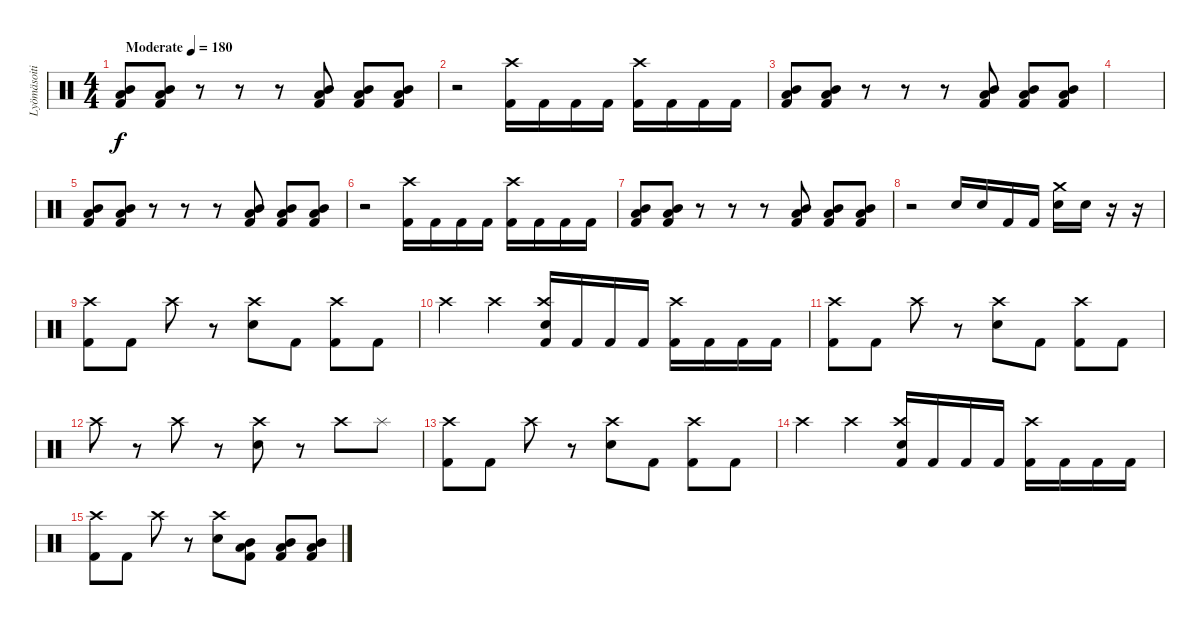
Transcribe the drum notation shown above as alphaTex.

\track ("Lyömäsoitin" "Lyömäsoiti") {instrument percussion}
\staff {score}
\articulation defaults
\ts (4 4)
\tempo (180 "Moderate")
\clef neutral
\ks c
("Kick (hit) 2" "Mid Tom (hit)" "Low Tom (hit)").8{dy f} ("Kick (hit) 2" "Mid Tom (hit)" "Low Tom (hit)").8 r.8 r.8 r.8 ("Kick (hit) 2" "Mid Tom (hit)" "Low Tom (hit)").8 ("Kick (hit) 2" "Mid Tom (hit)" "Low Tom (hit)").8 ("Kick (hit) 2" "Mid Tom (hit)" "Low Tom (hit)").8 |
r.2 ("Kick (hit) 2" "Crash high (hit)").16 "Kick (hit) 2".16 "Kick (hit) 2".16 "Kick (hit) 2".16 ("Kick (hit) 2" "Crash high (hit)").16 "Kick (hit) 2".16 "Kick (hit) 2".16 "Kick (hit) 2".16 |
("Kick (hit) 2" "Mid Tom (hit)" "Low Tom (hit)").8 ("Kick (hit) 2" "Mid Tom (hit)" "Low Tom (hit)").8 r.8 r.8 r.8 ("Kick (hit) 2" "Mid Tom (hit)" "Low Tom (hit)").8 ("Kick (hit) 2" "Mid Tom (hit)" "Low Tom (hit)").8 ("Kick (hit) 2" "Mid Tom (hit)" "Low Tom (hit)").8 |
|
("Kick (hit) 2" "Mid Tom (hit)" "Low Tom (hit)").8 ("Kick (hit) 2" "Mid Tom (hit)" "Low Tom (hit)").8 r.8 r.8 r.8 ("Kick (hit) 2" "Mid Tom (hit)" "Low Tom (hit)").8 ("Kick (hit) 2" "Mid Tom (hit)" "Low Tom (hit)").8 ("Kick (hit) 2" "Mid Tom (hit)" "Low Tom (hit)").8 |
r.2 ("Kick (hit) 2" "Crash high (hit)").16 "Kick (hit) 2".16 "Kick (hit) 2".16 "Kick (hit) 2".16 ("Kick (hit) 2" "Crash high (hit)").16 "Kick (hit) 2".16 "Kick (hit) 2".16 "Kick (hit) 2".16 |
("Kick (hit) 2" "Mid Tom (hit)" "Low Tom (hit)").8 ("Kick (hit) 2" "Mid Tom (hit)" "Low Tom (hit)").8 r.8 r.8 r.8 ("Kick (hit) 2" "Mid Tom (hit)" "Low Tom (hit)").8 ("Kick (hit) 2" "Mid Tom (hit)" "Low Tom (hit)").8 ("Kick (hit) 2" "Mid Tom (hit)" "Low Tom (hit)").8 |
r.2 "Electric Snare (hit)".16 "Electric Snare (hit)".16 "Kick (hit) 2".16 "Kick (hit) 2".16 ("Electric Snare (hit)" "Crash medium (hit)").16 "Electric Snare (hit)".16 r.16 r.16 |
("Kick (hit) 2" "Crash high (hit)").8 "Kick (hit) 2".8 "Crash high (hit)".8 r.8 ("Electric Snare (hit)" "Crash high (hit)").8 "Kick (hit) 2".8 ("Kick (hit) 2" "Crash high (hit)").8 "Kick (hit) 2".8 |
"Crash high (hit)".4 "Crash high (hit)".4 ("Kick (hit) 2" "Electric Snare (hit)" "Crash high (hit)").16 "Kick (hit) 2".16 "Kick (hit) 2".16 "Kick (hit) 2".16 ("Kick (hit) 2" "Crash high (hit)").16 "Kick (hit) 2".16 "Kick (hit) 2".16 "Kick (hit) 2".16 |
("Kick (hit) 2" "Crash high (hit)").8 "Kick (hit) 2".8 "Crash high (hit)".8 r.8 ("Electric Snare (hit)" "Crash high (hit)").8 "Kick (hit) 2".8 ("Kick (hit) 2" "Crash high (hit)").8 "Kick (hit) 2".8 |
"Crash high (hit)".8 r.8 "Crash high (hit)".8 r.8 ("Electric Snare (hit)" "Crash high (hit)").8 r.8 "Crash high (hit)".8 "Splash (hit)".8 |
("Kick (hit) 2" "Crash high (hit)").8 "Kick (hit) 2".8 "Crash high (hit)".8 r.8 ("Electric Snare (hit)" "Crash high (hit)").8 "Kick (hit) 2".8 ("Kick (hit) 2" "Crash high (hit)").8 "Kick (hit) 2".8 |
"Crash high (hit)".4 "Crash high (hit)".4 ("Kick (hit) 2" "Electric Snare (hit)" "Crash high (hit)").16 "Kick (hit) 2".16 "Kick (hit) 2".16 "Kick (hit) 2".16 ("Kick (hit) 2" "Crash high (hit)").16 "Kick (hit) 2".16 "Kick (hit) 2".16 "Kick (hit) 2".16 |
("Kick (hit) 2" "Crash high (hit)").8 "Kick (hit) 2".8 "Crash high (hit)".8 r.8 ("Electric Snare (hit)" "Crash high (hit)").8 ("Kick (hit) 2" "Mid Tom (hit)" "Low Tom (hit)").8 ("Kick (hit) 2" "Mid Tom (hit)" "Low Tom (hit)").8 ("Kick (hit) 2" "Mid Tom (hit)" "Low Tom (hit)").8
